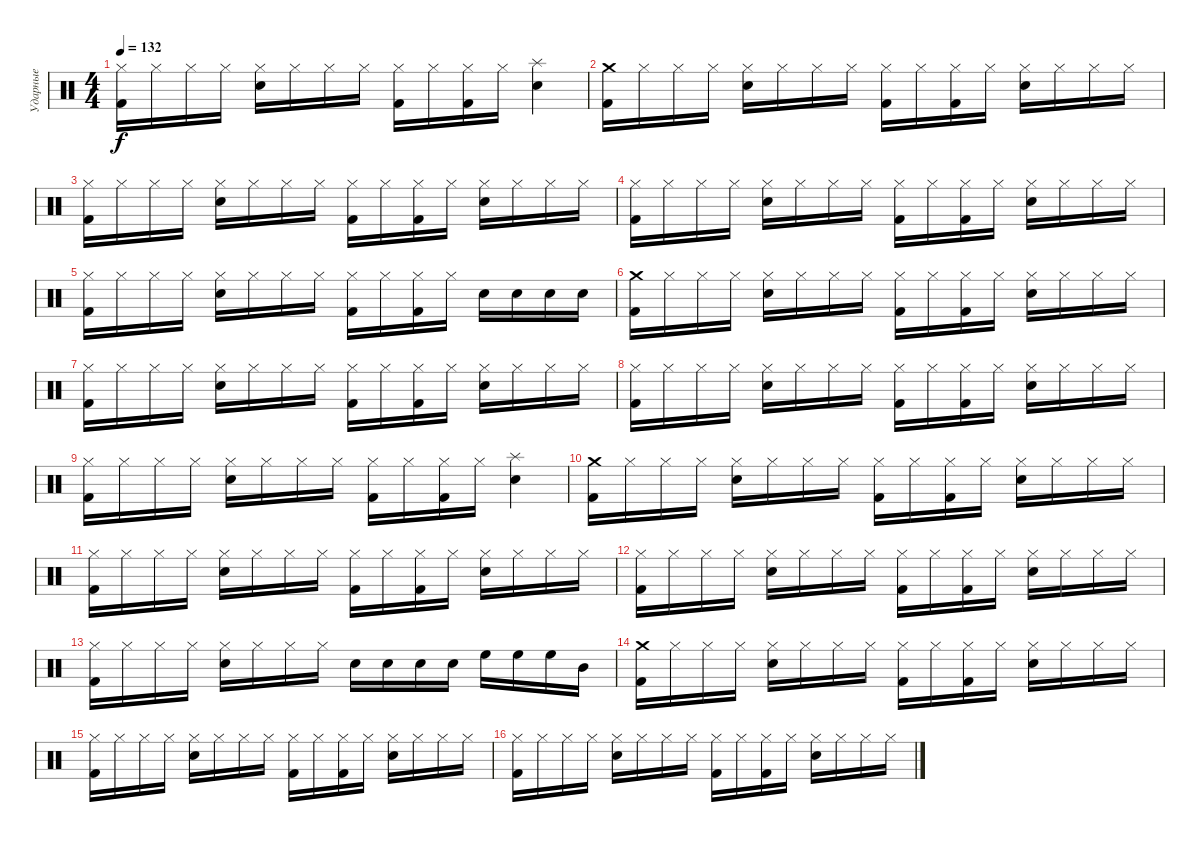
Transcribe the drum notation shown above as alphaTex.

\track ("Ударные" "Ударные") {instrument percussion}
\staff {score}
\articulation defaults
\ts (4 4)
\tempo 132
\clef neutral
\ks c
("Hi-Hat (closed)" "Kick (hit) 2").16{dy f} "Hi-Hat (closed)".16 "Hi-Hat (closed)".16 "Hi-Hat (closed)".16 ("Hi-Hat (closed)" "Electric Snare (hit)").16 "Hi-Hat (closed)".16 "Hi-Hat (closed)".16 "Hi-Hat (closed)".16 ("Hi-Hat (closed)" "Kick (hit) 2").16 "Hi-Hat (closed)".16 ("Hi-Hat (closed)" "Kick (hit) 2").16 "Hi-Hat (closed)".16 ("Splash (hit)" "Electric Snare (hit)").4 |
("Crash medium (hit)" "Kick (hit) 2").16 "Hi-Hat (closed)".16 "Hi-Hat (closed)".16 "Hi-Hat (closed)".16 ("Hi-Hat (closed)" "Electric Snare (hit)").16 "Hi-Hat (closed)".16 "Hi-Hat (closed)".16 "Hi-Hat (closed)".16 ("Hi-Hat (closed)" "Kick (hit) 2").16 "Hi-Hat (closed)".16 ("Hi-Hat (closed)" "Kick (hit) 2").16 "Hi-Hat (closed)".16 ("Hi-Hat (closed)" "Electric Snare (hit)").16 "Hi-Hat (closed)".16 "Hi-Hat (closed)".16 "Hi-Hat (closed)".16 |
("Hi-Hat (closed)" "Kick (hit) 2").16 "Hi-Hat (closed)".16 "Hi-Hat (closed)".16 "Hi-Hat (closed)".16 ("Hi-Hat (closed)" "Electric Snare (hit)").16 "Hi-Hat (closed)".16 "Hi-Hat (closed)".16 "Hi-Hat (closed)".16 ("Hi-Hat (closed)" "Kick (hit) 2").16 "Hi-Hat (closed)".16 ("Hi-Hat (closed)" "Kick (hit) 2").16 "Hi-Hat (closed)".16 ("Hi-Hat (closed)" "Electric Snare (hit)").16 "Hi-Hat (closed)".16 "Hi-Hat (closed)".16 "Hi-Hat (closed)".16 |
("Hi-Hat (closed)" "Kick (hit) 2").16 "Hi-Hat (closed)".16 "Hi-Hat (closed)".16 "Hi-Hat (closed)".16 ("Hi-Hat (closed)" "Electric Snare (hit)").16 "Hi-Hat (closed)".16 "Hi-Hat (closed)".16 "Hi-Hat (closed)".16 ("Hi-Hat (closed)" "Kick (hit) 2").16 "Hi-Hat (closed)".16 ("Hi-Hat (closed)" "Kick (hit) 2").16 "Hi-Hat (closed)".16 ("Hi-Hat (closed)" "Electric Snare (hit)").16 "Hi-Hat (closed)".16 "Hi-Hat (closed)".16 "Hi-Hat (closed)".16 |
("Hi-Hat (closed)" "Kick (hit) 2").16 "Hi-Hat (closed)".16 "Hi-Hat (closed)".16 "Hi-Hat (closed)".16 ("Hi-Hat (closed)" "Electric Snare (hit)").16 "Hi-Hat (closed)".16 "Hi-Hat (closed)".16 "Hi-Hat (closed)".16 ("Hi-Hat (closed)" "Kick (hit) 2").16 "Hi-Hat (closed)".16 ("Hi-Hat (closed)" "Kick (hit) 2").16 "Hi-Hat (closed)".16 "Electric Snare (hit)".16 "Electric Snare (hit)".16 "Electric Snare (hit)".16 "Electric Snare (hit)".16 |
("Crash medium (hit)" "Kick (hit) 2").16 "Hi-Hat (closed)".16 "Hi-Hat (closed)".16 "Hi-Hat (closed)".16 ("Hi-Hat (closed)" "Electric Snare (hit)").16 "Hi-Hat (closed)".16 "Hi-Hat (closed)".16 "Hi-Hat (closed)".16 ("Hi-Hat (closed)" "Kick (hit) 2").16 "Hi-Hat (closed)".16 ("Hi-Hat (closed)" "Kick (hit) 2").16 "Hi-Hat (closed)".16 ("Hi-Hat (closed)" "Electric Snare (hit)").16 "Hi-Hat (closed)".16 "Hi-Hat (closed)".16 "Hi-Hat (closed)".16 |
("Hi-Hat (closed)" "Kick (hit) 2").16 "Hi-Hat (closed)".16 "Hi-Hat (closed)".16 "Hi-Hat (closed)".16 ("Hi-Hat (closed)" "Electric Snare (hit)").16 "Hi-Hat (closed)".16 "Hi-Hat (closed)".16 "Hi-Hat (closed)".16 ("Hi-Hat (closed)" "Kick (hit) 2").16 "Hi-Hat (closed)".16 ("Hi-Hat (closed)" "Kick (hit) 2").16 "Hi-Hat (closed)".16 ("Hi-Hat (closed)" "Electric Snare (hit)").16 "Hi-Hat (closed)".16 "Hi-Hat (closed)".16 "Hi-Hat (closed)".16 |
("Hi-Hat (closed)" "Kick (hit) 2").16 "Hi-Hat (closed)".16 "Hi-Hat (closed)".16 "Hi-Hat (closed)".16 ("Hi-Hat (closed)" "Electric Snare (hit)").16 "Hi-Hat (closed)".16 "Hi-Hat (closed)".16 "Hi-Hat (closed)".16 ("Hi-Hat (closed)" "Kick (hit) 2").16 "Hi-Hat (closed)".16 ("Hi-Hat (closed)" "Kick (hit) 2").16 "Hi-Hat (closed)".16 ("Hi-Hat (closed)" "Electric Snare (hit)").16 "Hi-Hat (closed)".16 "Hi-Hat (closed)".16 "Hi-Hat (closed)".16 |
("Hi-Hat (closed)" "Kick (hit) 2").16 "Hi-Hat (closed)".16 "Hi-Hat (closed)".16 "Hi-Hat (closed)".16 ("Hi-Hat (closed)" "Electric Snare (hit)").16 "Hi-Hat (closed)".16 "Hi-Hat (closed)".16 "Hi-Hat (closed)".16 ("Hi-Hat (closed)" "Kick (hit) 2").16 "Hi-Hat (closed)".16 ("Hi-Hat (closed)" "Kick (hit) 2").16 "Hi-Hat (closed)".16 ("Splash (hit)" "Electric Snare (hit)").4 |
("Crash medium (hit)" "Kick (hit) 2").16 "Hi-Hat (closed)".16 "Hi-Hat (closed)".16 "Hi-Hat (closed)".16 ("Hi-Hat (closed)" "Electric Snare (hit)").16 "Hi-Hat (closed)".16 "Hi-Hat (closed)".16 "Hi-Hat (closed)".16 ("Hi-Hat (closed)" "Kick (hit) 2").16 "Hi-Hat (closed)".16 ("Hi-Hat (closed)" "Kick (hit) 2").16 "Hi-Hat (closed)".16 ("Hi-Hat (closed)" "Electric Snare (hit)").16 "Hi-Hat (closed)".16 "Hi-Hat (closed)".16 "Hi-Hat (closed)".16 |
("Hi-Hat (closed)" "Kick (hit) 2").16 "Hi-Hat (closed)".16 "Hi-Hat (closed)".16 "Hi-Hat (closed)".16 ("Hi-Hat (closed)" "Electric Snare (hit)").16 "Hi-Hat (closed)".16 "Hi-Hat (closed)".16 "Hi-Hat (closed)".16 ("Hi-Hat (closed)" "Kick (hit) 2").16 "Hi-Hat (closed)".16 ("Hi-Hat (closed)" "Kick (hit) 2").16 "Hi-Hat (closed)".16 ("Hi-Hat (closed)" "Electric Snare (hit)").16 "Hi-Hat (closed)".16 "Hi-Hat (closed)".16 "Hi-Hat (closed)".16 |
("Hi-Hat (closed)" "Kick (hit) 2").16 "Hi-Hat (closed)".16 "Hi-Hat (closed)".16 "Hi-Hat (closed)".16 ("Hi-Hat (closed)" "Electric Snare (hit)").16 "Hi-Hat (closed)".16 "Hi-Hat (closed)".16 "Hi-Hat (closed)".16 ("Hi-Hat (closed)" "Kick (hit) 2").16 "Hi-Hat (closed)".16 ("Hi-Hat (closed)" "Kick (hit) 2").16 "Hi-Hat (closed)".16 ("Hi-Hat (closed)" "Electric Snare (hit)").16 "Hi-Hat (closed)".16 "Hi-Hat (closed)".16 "Hi-Hat (closed)".16 |
("Hi-Hat (closed)" "Kick (hit) 2").16 "Hi-Hat (closed)".16 "Hi-Hat (closed)".16 "Hi-Hat (closed)".16 ("Hi-Hat (closed)" "Electric Snare (hit)").16 "Hi-Hat (closed)".16 "Hi-Hat (closed)".16 "Hi-Hat (closed)".16 "Electric Snare (hit)".16 "Electric Snare (hit)".16 "Electric Snare (hit)".16 "Electric Snare (hit)".16 "High Floor Tom (hit)".16 "High Floor Tom (hit)".16 "High Floor Tom (hit)".16 "Mid Tom (hit)".16 |
("Crash medium (hit)" "Kick (hit) 2").16 "Hi-Hat (closed)".16 "Hi-Hat (closed)".16 "Hi-Hat (closed)".16 ("Hi-Hat (closed)" "Electric Snare (hit)").16 "Hi-Hat (closed)".16 "Hi-Hat (closed)".16 "Hi-Hat (closed)".16 ("Hi-Hat (closed)" "Kick (hit) 2").16 "Hi-Hat (closed)".16 ("Hi-Hat (closed)" "Kick (hit) 2").16 "Hi-Hat (closed)".16 ("Hi-Hat (closed)" "Electric Snare (hit)").16 "Hi-Hat (closed)".16 "Hi-Hat (closed)".16 "Hi-Hat (closed)".16 |
("Hi-Hat (closed)" "Kick (hit) 2").16 "Hi-Hat (closed)".16 "Hi-Hat (closed)".16 "Hi-Hat (closed)".16 ("Hi-Hat (closed)" "Electric Snare (hit)").16 "Hi-Hat (closed)".16 "Hi-Hat (closed)".16 "Hi-Hat (closed)".16 ("Hi-Hat (closed)" "Kick (hit) 2").16 "Hi-Hat (closed)".16 ("Hi-Hat (closed)" "Kick (hit) 2").16 "Hi-Hat (closed)".16 ("Hi-Hat (closed)" "Electric Snare (hit)").16 "Hi-Hat (closed)".16 "Hi-Hat (closed)".16 "Hi-Hat (closed)".16 |
("Hi-Hat (closed)" "Kick (hit) 2").16 "Hi-Hat (closed)".16 "Hi-Hat (closed)".16 "Hi-Hat (closed)".16 ("Hi-Hat (closed)" "Electric Snare (hit)").16 "Hi-Hat (closed)".16 "Hi-Hat (closed)".16 "Hi-Hat (closed)".16 ("Hi-Hat (closed)" "Kick (hit) 2").16 "Hi-Hat (closed)".16 ("Hi-Hat (closed)" "Kick (hit) 2").16 "Hi-Hat (closed)".16 ("Hi-Hat (closed)" "Electric Snare (hit)").16 "Hi-Hat (closed)".16 "Hi-Hat (closed)".16 "Hi-Hat (closed)".16
